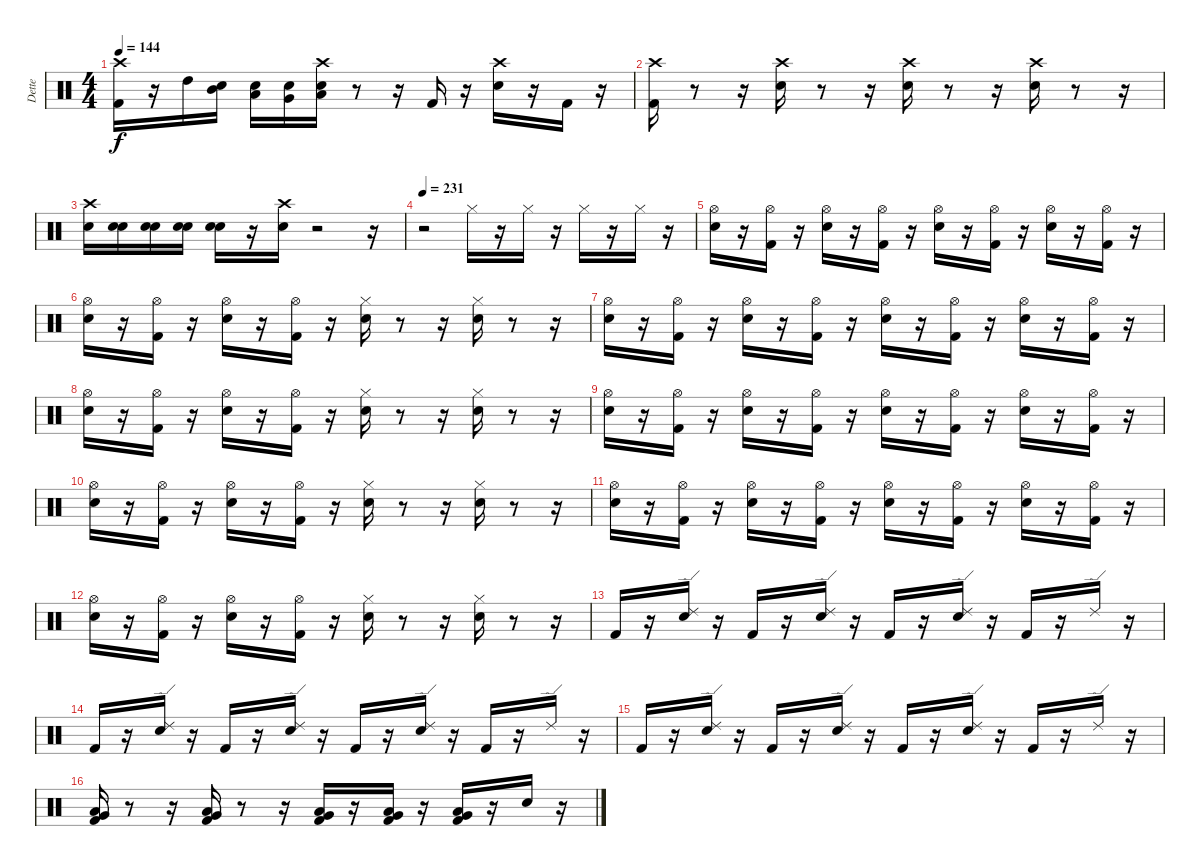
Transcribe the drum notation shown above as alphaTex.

\track ("Dette" "Dette") {instrument percussion}
\staff {score}
\articulation defaults
\ts (4 4)
\tempo 144
\clef neutral
\ks c
("Kick (hit) 2" "Crash high (hit)").16{dy f} r.16 "High Tom (hit)".16 ("Snare (hit)" "Mid Tom (hit)").16 ("Snare (hit)" "Low Tom (hit)").16 ("Snare (hit)" "Very Low Tom (hit)").16 ("Snare (hit)" "Low Floor Tom (hit)" "Crash high (hit)").16 r.8 r.16 "Kick (hit) 2".16 r.16 ("Snare (hit) 2" "Crash high (hit)").16 r.16 "Kick (hit) 2".16 r.16 |
("Kick (hit) 2" "Crash high (hit)").16 r.8 r.16 ("Snare (hit) 2" "Crash high (hit)").16 r.8 r.16 ("Snare (hit) 2" "Crash high (hit)").16 r.8 r.16 ("Snare (hit) 2" "Crash high (hit)").16 r.8 r.16 |
("Snare (hit) 2" "Crash high (hit)").16 ("Snare (hit)" "Snare (hit) 2").16 ("Snare (hit)" "Snare (hit) 2").16 ("Snare (hit)" "Snare (hit) 2").16 ("Snare (hit)" "Snare (hit) 2").16 r.16 ("Snare (hit) 2" "Crash high (hit)").16 r.2 r.16 |
\tempo 231
r.2 "Hi-Hat (closed)".16 r.16 "Hi-Hat (closed)".16 r.16 "Hi-Hat (closed)".16 r.16 "Hi-Hat (closed)".16 r.16 |
("Snare (hit) 2" "Hi-Hat (open)").16 r.16 ("Kick (hit) 2" "Hi-Hat (open)").16 r.16 ("Snare (hit) 2" "Hi-Hat (open)").16 r.16 ("Kick (hit) 2" "Hi-Hat (open)").16 r.16 ("Snare (hit) 2" "Hi-Hat (open)").16 r.16 ("Kick (hit) 2" "Hi-Hat (open)").16 r.16 ("Snare (hit) 2" "Hi-Hat (open)").16 r.16 ("Kick (hit) 2" "Hi-Hat (open)").16 r.16 |
("Snare (hit) 2" "Hi-Hat (open)").16 r.16 ("Kick (hit) 2" "Hi-Hat (open)").16 r.16 ("Snare (hit) 2" "Hi-Hat (open)").16 r.16 ("Kick (hit) 2" "Hi-Hat (open)").16 r.16 ("Snare (hit) 2" "Hi-Hat (closed)").16 r.8 r.16 ("Snare (hit) 2" "Hi-Hat (closed)").16 r.8 r.16 |
("Snare (hit) 2" "Hi-Hat (open)").16 r.16 ("Kick (hit) 2" "Hi-Hat (open)").16 r.16 ("Snare (hit) 2" "Hi-Hat (open)").16 r.16 ("Kick (hit) 2" "Hi-Hat (open)").16 r.16 ("Snare (hit) 2" "Hi-Hat (open)").16 r.16 ("Kick (hit) 2" "Hi-Hat (open)").16 r.16 ("Snare (hit) 2" "Hi-Hat (open)").16 r.16 ("Kick (hit) 2" "Hi-Hat (open)").16 r.16 |
("Snare (hit) 2" "Hi-Hat (open)").16 r.16 ("Kick (hit) 2" "Hi-Hat (open)").16 r.16 ("Snare (hit) 2" "Hi-Hat (open)").16 r.16 ("Kick (hit) 2" "Hi-Hat (open)").16 r.16 ("Snare (hit) 2" "Hi-Hat (closed)").16 r.8 r.16 ("Snare (hit) 2" "Hi-Hat (closed)").16 r.8 r.16 |
("Snare (hit) 2" "Hi-Hat (open)").16 r.16 ("Kick (hit) 2" "Hi-Hat (open)").16 r.16 ("Snare (hit) 2" "Hi-Hat (open)").16 r.16 ("Kick (hit) 2" "Hi-Hat (open)").16 r.16 ("Snare (hit) 2" "Hi-Hat (open)").16 r.16 ("Kick (hit) 2" "Hi-Hat (open)").16 r.16 ("Snare (hit) 2" "Hi-Hat (open)").16 r.16 ("Kick (hit) 2" "Hi-Hat (open)").16 r.16 |
("Snare (hit) 2" "Hi-Hat (open)").16 r.16 ("Kick (hit) 2" "Hi-Hat (open)").16 r.16 ("Snare (hit) 2" "Hi-Hat (open)").16 r.16 ("Kick (hit) 2" "Hi-Hat (open)").16 r.16 ("Snare (hit) 2" "Hi-Hat (closed)").16 r.8 r.16 ("Snare (hit) 2" "Hi-Hat (closed)").16 r.8 r.16 |
("Snare (hit) 2" "Hi-Hat (open)").16 r.16 ("Kick (hit) 2" "Hi-Hat (open)").16 r.16 ("Snare (hit) 2" "Hi-Hat (open)").16 r.16 ("Kick (hit) 2" "Hi-Hat (open)").16 r.16 ("Snare (hit) 2" "Hi-Hat (open)").16 r.16 ("Kick (hit) 2" "Hi-Hat (open)").16 r.16 ("Snare (hit) 2" "Hi-Hat (open)").16 r.16 ("Kick (hit) 2" "Hi-Hat (open)").16 r.16 |
("Snare (hit) 2" "Hi-Hat (open)").16 r.16 ("Kick (hit) 2" "Hi-Hat (open)").16 r.16 ("Snare (hit) 2" "Hi-Hat (open)").16 r.16 ("Kick (hit) 2" "Hi-Hat (open)").16 r.16 ("Snare (hit) 2" "Hi-Hat (closed)").16 r.8 r.16 ("Snare (hit) 2" "Hi-Hat (closed)").16 r.8 r.16 |
"Kick (hit) 2".16 r.16 ("Snare (hit) 2" "Ride (edge) 2").16 r.16 "Kick (hit) 2".16 r.16 ("Snare (hit) 2" "Ride (edge) 2").16 r.16 "Kick (hit) 2".16 r.16 ("Snare (hit) 2" "Ride (edge) 2").16 r.16 "Kick (hit) 2".16 r.16 "Ride (edge) 2".16 r.16 |
"Kick (hit) 2".16 r.16 ("Snare (hit) 2" "Ride (edge) 2").16 r.16 "Kick (hit) 2".16 r.16 ("Snare (hit) 2" "Ride (edge) 2").16 r.16 "Kick (hit) 2".16 r.16 ("Snare (hit) 2" "Ride (edge) 2").16 r.16 "Kick (hit) 2".16 r.16 "Ride (edge) 2".16 r.16 |
"Kick (hit) 2".16 r.16 ("Snare (hit) 2" "Ride (edge) 2").16 r.16 "Kick (hit) 2".16 r.16 ("Snare (hit) 2" "Ride (edge) 2").16 r.16 "Kick (hit) 2".16 r.16 ("Snare (hit) 2" "Ride (edge) 2").16 r.16 "Kick (hit) 2".16 r.16 "Ride (edge) 2".16 r.16 |
("Kick (hit) 2" "Low Floor Tom (hit)" "Very Low Tom (hit)").16 r.8 r.16 ("Kick (hit) 2" "Low Floor Tom (hit)" "Very Low Tom (hit)").16 r.8 r.16 ("Kick (hit) 2" "Low Floor Tom (hit)" "Very Low Tom (hit)").16 r.16 ("Kick (hit) 2" "Low Floor Tom (hit)" "Very Low Tom (hit)").16 r.16 ("Kick (hit) 2" "Low Floor Tom (hit)" "Very Low Tom (hit)").16 r.16 "Snare (hit) 2".16 r.16
